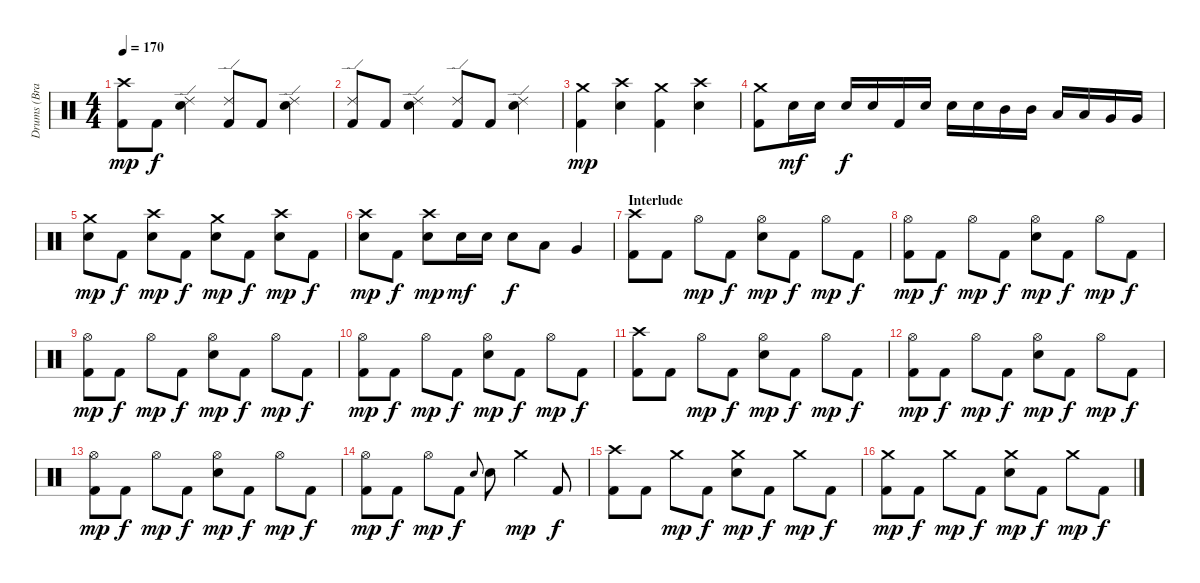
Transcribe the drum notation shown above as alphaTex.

\track ("Drums (Brandon Saller)" "Drums (Bra") {instrument percussion}
\staff {score}
\articulation defaults
\ts (4 4)
\tempo 170
\clef neutral
\ks c
("Crash high (hit)" "Kick (hit) 2").8{dy mp} "Kick (hit) 2".8{dy f} ("Ride (edge) 2" "Electric Snare (hit)").4 ("Ride (edge) 2" "Kick (hit) 2").8 "Kick (hit) 2".8 ("Ride (edge) 2" "Electric Snare (hit)").4 |
("Ride (edge) 2" "Kick (hit) 2").8 "Kick (hit) 2".8 ("Ride (edge) 2" "Electric Snare (hit)").4 ("Ride (edge) 2" "Kick (hit) 2").8 "Kick (hit) 2".8 ("Ride (edge) 2" "Electric Snare (hit)").4 |
("Crash medium (hit)" "Kick (hit) 2").4{dy mp} ("Crash high (hit)" "Electric Snare (hit)").4 ("Crash medium (hit)" "Kick (hit) 2").4 ("Crash high (hit)" "Electric Snare (hit)").4 |
("Crash medium (hit)" "Kick (hit) 2").8 "Electric Snare (hit)".16{dy mf} "Electric Snare (hit)".16 "Electric Snare (hit)".16{dy f} "Electric Snare (hit)".16 "Kick (hit) 2".16 "Electric Snare (hit)".16 "Electric Snare (hit)".16 "Electric Snare (hit)".16 "Mid Tom (hit)".16 "Mid Tom (hit)".16 "Low Tom (hit)".16 "Low Tom (hit)".16 "Very Low Tom (hit)".16 "Very Low Tom (hit)".16 |
("Crash medium (hit)" "Electric Snare (hit)").8{dy mp} "Kick (hit) 2".8{dy f} ("Crash high (hit)" "Electric Snare (hit)").8{dy mp} "Kick (hit) 2".8{dy f} ("Crash medium (hit)" "Electric Snare (hit)").8{dy mp} "Kick (hit) 2".8{dy f} ("Crash high (hit)" "Electric Snare (hit)").8{dy mp} "Kick (hit) 2".8{dy f} |
("Crash high (hit)" "Electric Snare (hit)").8{dy mp} "Kick (hit) 2".8{dy f} ("Crash high (hit)" "Electric Snare (hit)").8{dy mp} "Electric Snare (hit)".16{dy mf} "Electric Snare (hit)".16 "Electric Snare (hit)".8{dy f} "Low Tom (hit)".8 "Very Low Tom (hit)".4 |
\section ("" "Interlude")
("Crash high (hit)" "Kick (hit) 2").8 "Kick (hit) 2".8 "Hi-Hat (open)".8{dy mp} "Kick (hit) 2".8{dy f} ("Hi-Hat (open)" "Electric Snare (hit)").8{dy mp} "Kick (hit) 2".8{dy f} "Hi-Hat (open)".8{dy mp} "Kick (hit) 2".8{dy f} |
("Hi-Hat (open)" "Kick (hit) 2").8{dy mp} "Kick (hit) 2".8{dy f} "Hi-Hat (open)".8{dy mp} "Kick (hit) 2".8{dy f} ("Hi-Hat (open)" "Electric Snare (hit)").8{dy mp} "Kick (hit) 2".8{dy f} "Hi-Hat (open)".8{dy mp} "Kick (hit) 2".8{dy f} |
("Hi-Hat (open)" "Kick (hit) 2").8{dy mp} "Kick (hit) 2".8{dy f} "Hi-Hat (open)".8{dy mp} "Kick (hit) 2".8{dy f} ("Hi-Hat (open)" "Electric Snare (hit)").8{dy mp} "Kick (hit) 2".8{dy f} "Hi-Hat (open)".8{dy mp} "Kick (hit) 2".8{dy f} |
("Hi-Hat (open)" "Kick (hit) 2").8{dy mp} "Kick (hit) 2".8{dy f} "Hi-Hat (open)".8{dy mp} "Kick (hit) 2".8{dy f} ("Hi-Hat (open)" "Electric Snare (hit)").8{dy mp} "Kick (hit) 2".8{dy f} "Hi-Hat (open)".8{dy mp} "Kick (hit) 2".8{dy f} |
("Crash high (hit)" "Kick (hit) 2").8 "Kick (hit) 2".8 "Hi-Hat (open)".8{dy mp} "Kick (hit) 2".8{dy f} ("Hi-Hat (open)" "Electric Snare (hit)").8{dy mp} "Kick (hit) 2".8{dy f} "Hi-Hat (open)".8{dy mp} "Kick (hit) 2".8{dy f} |
("Hi-Hat (open)" "Kick (hit) 2").8{dy mp} "Kick (hit) 2".8{dy f} "Hi-Hat (open)".8{dy mp} "Kick (hit) 2".8{dy f} ("Hi-Hat (open)" "Electric Snare (hit)").8{dy mp} "Kick (hit) 2".8{dy f} "Hi-Hat (open)".8{dy mp} "Kick (hit) 2".8{dy f} |
("Hi-Hat (open)" "Kick (hit) 2").8{dy mp} "Kick (hit) 2".8{dy f} "Hi-Hat (open)".8{dy mp} "Kick (hit) 2".8{dy f} ("Hi-Hat (open)" "Electric Snare (hit)").8{dy mp} "Kick (hit) 2".8{dy f} "Hi-Hat (open)".8{dy mp} "Kick (hit) 2".8{dy f} |
("Hi-Hat (open)" "Kick (hit) 2").8{dy mp} "Kick (hit) 2".8{dy f} "Hi-Hat (open)".8{dy mp} "Kick (hit) 2".8{dy f} "Electric Snare (hit)".8{gr onbeat} "Electric Snare (hit)".8 "Crash medium (hit)".4{dy mp} "Kick (hit) 2".8{dy f} |
("Crash high (hit)" "Kick (hit) 2").8 "Kick (hit) 2".8 "Crash medium (hit)".8{dy mp} "Kick (hit) 2".8{dy f} ("Crash medium (hit)" "Electric Snare (hit)").8{dy mp} "Kick (hit) 2".8{dy f} "Crash medium (hit)".8{dy mp} "Kick (hit) 2".8{dy f} |
("Crash medium (hit)" "Kick (hit) 2").8{dy mp} "Kick (hit) 2".8{dy f} "Crash medium (hit)".8{dy mp} "Kick (hit) 2".8{dy f} ("Crash medium (hit)" "Electric Snare (hit)").8{dy mp} "Kick (hit) 2".8{dy f} "Crash medium (hit)".8{dy mp} "Kick (hit) 2".8{dy f}
